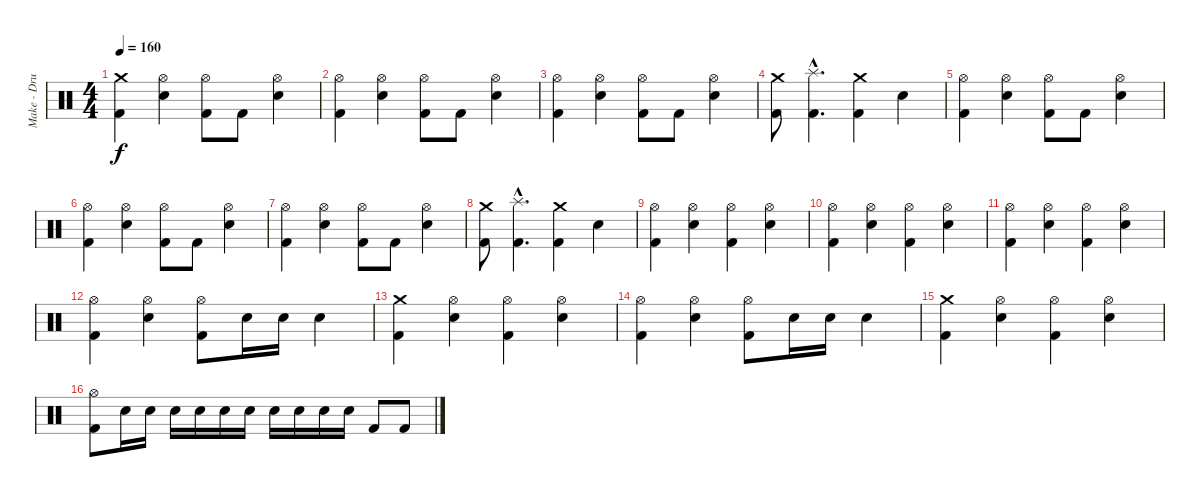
\track ("Make - Drums" "Make - Dru") {instrument percussion}
\staff {score}
\articulation defaults
\ts (4 4)
\tempo 160
\clef neutral
\ks c
("Kick (hit) 2" "Crash medium (hit)").4{dy f} ("Snare (hit) 2" "Hi-Hat (open)").4 ("Kick (hit) 2" "Hi-Hat (open)").8 "Kick (hit) 2".8 ("Snare (hit) 2" "Hi-Hat (open)").4 |
("Kick (hit) 2" "Hi-Hat (open)").4 ("Snare (hit) 2" "Hi-Hat (open)").4 ("Kick (hit) 2" "Hi-Hat (open)").8 "Kick (hit) 2".8 ("Snare (hit) 2" "Hi-Hat (open)").4 |
("Kick (hit) 2" "Hi-Hat (open)").4 ("Snare (hit) 2" "Hi-Hat (open)").4 ("Kick (hit) 2" "Hi-Hat (open)").8 "Kick (hit) 2".8 ("Snare (hit) 2" "Hi-Hat (open)").4 |
("Kick (hit) 2" "Crash medium (hit)").8 ("Kick (hit) 2"{hac} "Splash (hit)"{hac}).4{d} ("Kick (hit) 2" "Crash medium (hit)").4 "Snare (hit) 2".4 |
("Kick (hit) 2" "Hi-Hat (open)").4 ("Snare (hit) 2" "Hi-Hat (open)").4 ("Kick (hit) 2" "Hi-Hat (open)").8 "Kick (hit) 2".8 ("Snare (hit) 2" "Hi-Hat (open)").4 |
("Kick (hit) 2" "Hi-Hat (open)").4 ("Snare (hit) 2" "Hi-Hat (open)").4 ("Kick (hit) 2" "Hi-Hat (open)").8 "Kick (hit) 2".8 ("Snare (hit) 2" "Hi-Hat (open)").4 |
("Kick (hit) 2" "Hi-Hat (open)").4 ("Snare (hit) 2" "Hi-Hat (open)").4 ("Kick (hit) 2" "Hi-Hat (open)").8 "Kick (hit) 2".8 ("Snare (hit) 2" "Hi-Hat (open)").4 |
("Kick (hit) 2" "Crash medium (hit)").8 ("Kick (hit) 2"{hac} "Splash (hit)"{hac}).4{d} ("Kick (hit) 2" "Crash medium (hit)").4 "Snare (hit) 2".4 |
("Kick (hit) 2" "Hi-Hat (open)").4 ("Snare (hit) 2" "Hi-Hat (open)").4 ("Kick (hit) 2" "Hi-Hat (open)").4 ("Snare (hit) 2" "Hi-Hat (open)").4 |
("Kick (hit) 2" "Hi-Hat (open)").4 ("Snare (hit) 2" "Hi-Hat (open)").4 ("Kick (hit) 2" "Hi-Hat (open)").4 ("Snare (hit) 2" "Hi-Hat (open)").4 |
("Kick (hit) 2" "Hi-Hat (open)").4 ("Snare (hit) 2" "Hi-Hat (open)").4 ("Kick (hit) 2" "Hi-Hat (open)").4 ("Snare (hit) 2" "Hi-Hat (open)").4 |
("Kick (hit) 2" "Hi-Hat (open)").4 ("Snare (hit) 2" "Hi-Hat (open)").4 ("Kick (hit) 2" "Hi-Hat (open)").8 "Snare (hit) 2".16 "Snare (hit) 2".16 "Snare (hit) 2".4 |
("Kick (hit) 2" "Crash medium (hit)").4 ("Snare (hit) 2" "Hi-Hat (open)").4 ("Kick (hit) 2" "Hi-Hat (open)").4 ("Snare (hit) 2" "Hi-Hat (open)").4 |
("Kick (hit) 2" "Hi-Hat (open)").4 ("Snare (hit) 2" "Hi-Hat (open)").4 ("Kick (hit) 2" "Hi-Hat (open)").8 "Snare (hit) 2".16 "Snare (hit) 2".16 "Snare (hit) 2".4 |
("Kick (hit) 2" "Crash medium (hit)").4 ("Snare (hit) 2" "Hi-Hat (open)").4 ("Kick (hit) 2" "Hi-Hat (open)").4 ("Snare (hit) 2" "Hi-Hat (open)").4 |
("Kick (hit) 2" "Hi-Hat (open)").8 "Snare (hit) 2".16 "Snare (hit) 2".16 "Snare (hit) 2".16 "Snare (hit) 2".16 "Snare (hit) 2".16 "Snare (hit) 2".16 "Snare (hit) 2".16 "Snare (hit) 2".16 "Snare (hit) 2".16 "Snare (hit) 2".16 "Kick (hit) 2".8 "Kick (hit) 2".8
